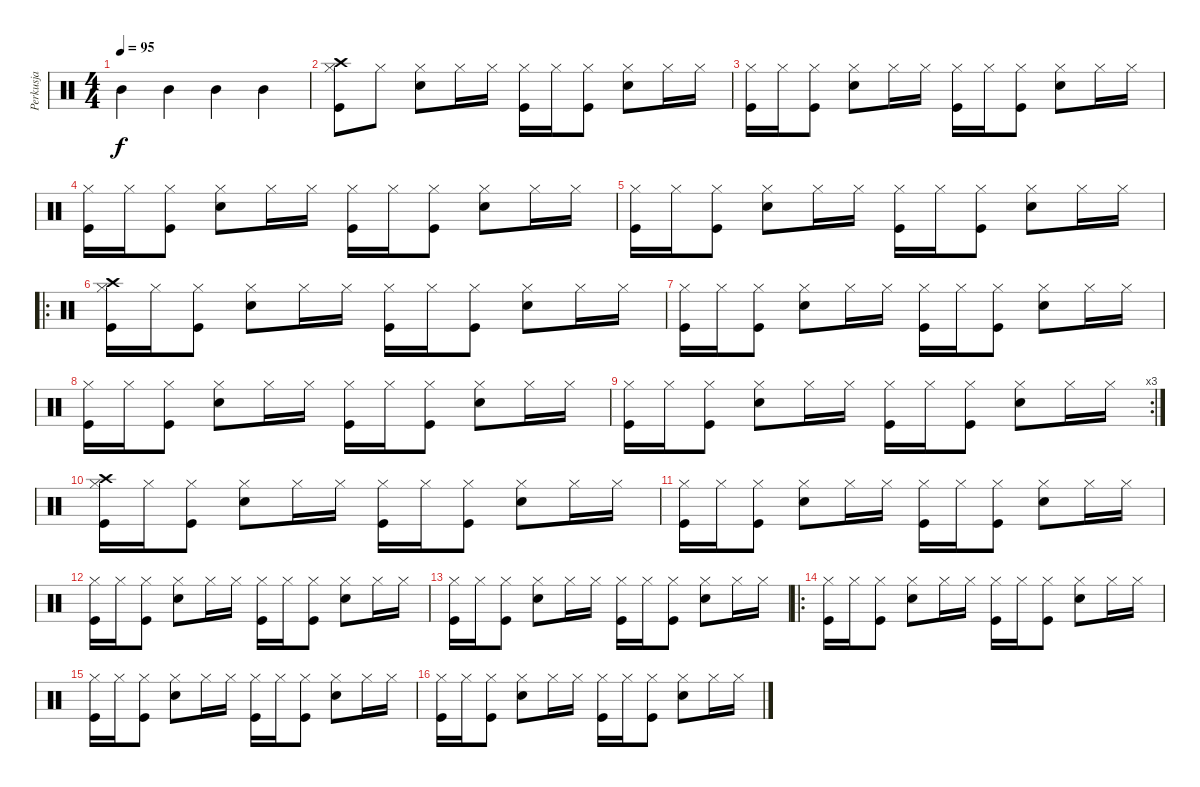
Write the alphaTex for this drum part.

\track ("Perkusja" "Perkusja") {instrument percussion}
\staff {score}
\articulation defaults
\ts (4 4)
\tempo 95
\clef neutral
\ks c "Mid Tom (hit)".4{dy f} "Mid Tom (hit)".4 "Mid Tom (hit)".4 "Mid Tom (hit)".4
|
("Hi-Hat (closed)" "Crash high (hit)" "Kick (hit)").8 "Hi-Hat (closed)".8 ("Hi-Hat (closed)" "Electric Snare (hit)").8 "Hi-Hat (closed)".16 "Hi-Hat (closed)".16 ("Hi-Hat (closed)" "Kick (hit)").16 "Hi-Hat (closed)".16 ("Hi-Hat (closed)" "Kick (hit)").8 ("Hi-Hat (closed)" "Electric Snare (hit)").8 "Hi-Hat (closed)".16 "Hi-Hat (closed)".16 |
("Hi-Hat (closed)" "Kick (hit)").16 "Hi-Hat (closed)".16 ("Hi-Hat (closed)" "Kick (hit)").8 ("Hi-Hat (closed)" "Electric Snare (hit)").8 "Hi-Hat (closed)".16 "Hi-Hat (closed)".16 ("Hi-Hat (closed)" "Kick (hit)").16 "Hi-Hat (closed)".16 ("Hi-Hat (closed)" "Kick (hit)").8 ("Hi-Hat (closed)" "Electric Snare (hit)").8 "Hi-Hat (closed)".16 "Hi-Hat (closed)".16 |
("Hi-Hat (closed)" "Kick (hit)").16 "Hi-Hat (closed)".16 ("Hi-Hat (closed)" "Kick (hit)").8 ("Hi-Hat (closed)" "Electric Snare (hit)").8 "Hi-Hat (closed)".16 "Hi-Hat (closed)".16 ("Hi-Hat (closed)" "Kick (hit)").16 "Hi-Hat (closed)".16 ("Hi-Hat (closed)" "Kick (hit)").8 ("Hi-Hat (closed)" "Electric Snare (hit)").8 "Hi-Hat (closed)".16 "Hi-Hat (closed)".16 |
("Hi-Hat (closed)" "Kick (hit)").16 "Hi-Hat (closed)".16 ("Hi-Hat (closed)" "Kick (hit)").8 ("Hi-Hat (closed)" "Electric Snare (hit)").8 "Hi-Hat (closed)".16 "Hi-Hat (closed)".16 ("Hi-Hat (closed)" "Kick (hit)").16 "Hi-Hat (closed)".16 ("Hi-Hat (closed)" "Kick (hit)").8 ("Hi-Hat (closed)" "Electric Snare (hit)").8 "Hi-Hat (closed)".16 "Hi-Hat (closed)".16 |
\ro
("Hi-Hat (closed)" "Crash high (hit)" "Kick (hit)").16 "Hi-Hat (closed)".16 ("Hi-Hat (closed)" "Kick (hit)").8 ("Hi-Hat (closed)" "Electric Snare (hit)").8 "Hi-Hat (closed)".16 "Hi-Hat (closed)".16 ("Hi-Hat (closed)" "Kick (hit)").16 "Hi-Hat (closed)".16 ("Hi-Hat (closed)" "Kick (hit)").8 ("Hi-Hat (closed)" "Electric Snare (hit)").8 "Hi-Hat (closed)".16 "Hi-Hat (closed)".16 |
("Hi-Hat (closed)" "Kick (hit)").16 "Hi-Hat (closed)".16 ("Hi-Hat (closed)" "Kick (hit)").8 ("Hi-Hat (closed)" "Electric Snare (hit)").8 "Hi-Hat (closed)".16 "Hi-Hat (closed)".16 ("Hi-Hat (closed)" "Kick (hit)").16 "Hi-Hat (closed)".16 ("Hi-Hat (closed)" "Kick (hit)").8 ("Hi-Hat (closed)" "Electric Snare (hit)").8 "Hi-Hat (closed)".16 "Hi-Hat (closed)".16 |
("Hi-Hat (closed)" "Kick (hit)").16 "Hi-Hat (closed)".16 ("Hi-Hat (closed)" "Kick (hit)").8 ("Hi-Hat (closed)" "Electric Snare (hit)").8 "Hi-Hat (closed)".16 "Hi-Hat (closed)".16 ("Hi-Hat (closed)" "Kick (hit)").16 "Hi-Hat (closed)".16 ("Hi-Hat (closed)" "Kick (hit)").8 ("Hi-Hat (closed)" "Electric Snare (hit)").8 "Hi-Hat (closed)".16 "Hi-Hat (closed)".16 |
\rc 3
("Hi-Hat (closed)" "Kick (hit)").16 "Hi-Hat (closed)".16 ("Hi-Hat (closed)" "Kick (hit)").8 ("Hi-Hat (closed)" "Electric Snare (hit)").8 "Hi-Hat (closed)".16 "Hi-Hat (closed)".16 ("Hi-Hat (closed)" "Kick (hit)").16 "Hi-Hat (closed)".16 ("Hi-Hat (closed)" "Kick (hit)").8 ("Hi-Hat (closed)" "Electric Snare (hit)").8 "Hi-Hat (closed)".16 "Hi-Hat (closed)".16 |
("Hi-Hat (closed)" "Crash high (hit)" "Kick (hit)").16 "Hi-Hat (closed)".16 ("Hi-Hat (closed)" "Kick (hit)").8 ("Hi-Hat (closed)" "Electric Snare (hit)").8 "Hi-Hat (closed)".16 "Hi-Hat (closed)".16 ("Hi-Hat (closed)" "Kick (hit)").16 "Hi-Hat (closed)".16 ("Hi-Hat (closed)" "Kick (hit)").8 ("Hi-Hat (closed)" "Electric Snare (hit)").8 "Hi-Hat (closed)".16 "Hi-Hat (closed)".16 |
("Hi-Hat (closed)" "Kick (hit)").16 "Hi-Hat (closed)".16 ("Hi-Hat (closed)" "Kick (hit)").8 ("Hi-Hat (closed)" "Electric Snare (hit)").8 "Hi-Hat (closed)".16 "Hi-Hat (closed)".16 ("Hi-Hat (closed)" "Kick (hit)").16 "Hi-Hat (closed)".16 ("Hi-Hat (closed)" "Kick (hit)").8 ("Hi-Hat (closed)" "Electric Snare (hit)").8 "Hi-Hat (closed)".16 "Hi-Hat (closed)".16 |
("Hi-Hat (closed)" "Kick (hit)").16 "Hi-Hat (closed)".16 ("Hi-Hat (closed)" "Kick (hit)").8 ("Hi-Hat (closed)" "Electric Snare (hit)").8 "Hi-Hat (closed)".16 "Hi-Hat (closed)".16 ("Hi-Hat (closed)" "Kick (hit)").16 "Hi-Hat (closed)".16 ("Hi-Hat (closed)" "Kick (hit)").8 ("Hi-Hat (closed)" "Electric Snare (hit)").8 "Hi-Hat (closed)".16 "Hi-Hat (closed)".16 |
("Hi-Hat (closed)" "Kick (hit)").16 "Hi-Hat (closed)".16 ("Hi-Hat (closed)" "Kick (hit)").8 ("Hi-Hat (closed)" "Electric Snare (hit)").8 "Hi-Hat (closed)".16 "Hi-Hat (closed)".16 ("Hi-Hat (closed)" "Kick (hit)").16 "Hi-Hat (closed)".16 ("Hi-Hat (closed)" "Kick (hit)").8 ("Hi-Hat (closed)" "Electric Snare (hit)").8 "Hi-Hat (closed)".16 "Hi-Hat (closed)".16 |
\ro
("Hi-Hat (closed)" "Kick (hit)").16 "Hi-Hat (closed)".16 ("Hi-Hat (closed)" "Kick (hit)").8 ("Hi-Hat (closed)" "Electric Snare (hit)").8 "Hi-Hat (closed)".16 "Hi-Hat (closed)".16 ("Hi-Hat (closed)" "Kick (hit)").16 "Hi-Hat (closed)".16 ("Hi-Hat (closed)" "Kick (hit)").8 ("Hi-Hat (closed)" "Electric Snare (hit)").8 "Hi-Hat (closed)".16 "Hi-Hat (closed)".16 |
("Hi-Hat (closed)" "Kick (hit)").16 "Hi-Hat (closed)".16 ("Hi-Hat (closed)" "Kick (hit)").8 ("Hi-Hat (closed)" "Electric Snare (hit)").8 "Hi-Hat (closed)".16 "Hi-Hat (closed)".16 ("Hi-Hat (closed)" "Kick (hit)").16 "Hi-Hat (closed)".16 ("Hi-Hat (closed)" "Kick (hit)").8 ("Hi-Hat (closed)" "Electric Snare (hit)").8 "Hi-Hat (closed)".16 "Hi-Hat (closed)".16 |
("Hi-Hat (closed)" "Kick (hit)").16 "Hi-Hat (closed)".16 ("Hi-Hat (closed)" "Kick (hit)").8 ("Hi-Hat (closed)" "Electric Snare (hit)").8 "Hi-Hat (closed)".16 "Hi-Hat (closed)".16 ("Hi-Hat (closed)" "Kick (hit)").16 "Hi-Hat (closed)".16 ("Hi-Hat (closed)" "Kick (hit)").8 ("Hi-Hat (closed)" "Electric Snare (hit)").8 "Hi-Hat (closed)".16 "Hi-Hat (closed)".16
